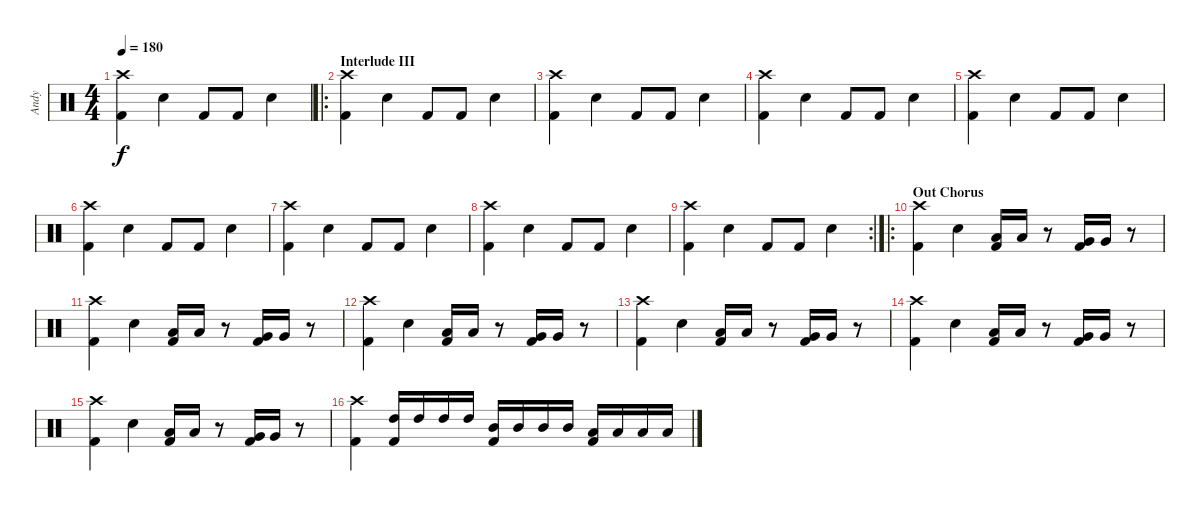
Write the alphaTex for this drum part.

\track ("Andy" "Andy") {instrument percussion}
\staff {score}
\articulation defaults
\ts (4 4)
\tempo 180
\clef neutral
\ks c
("Crash high (hit)" "Kick (hit) 2").4{dy f} "Snare (hit) 2".4 "Kick (hit) 2".8 "Kick (hit) 2".8 "Snare (hit) 2".4 |
\ro
\section ("" "Interlude III")
("Crash high (hit)" "Kick (hit) 2").4 "Snare (hit) 2".4 "Kick (hit) 2".8 "Kick (hit) 2".8 "Snare (hit) 2".4 |
("Crash high (hit)" "Kick (hit) 2").4 "Snare (hit) 2".4 "Kick (hit) 2".8 "Kick (hit) 2".8 "Snare (hit) 2".4 |
("Crash high (hit)" "Kick (hit) 2").4 "Snare (hit) 2".4 "Kick (hit) 2".8 "Kick (hit) 2".8 "Snare (hit) 2".4 |
("Crash high (hit)" "Kick (hit) 2").4 "Snare (hit) 2".4 "Kick (hit) 2".8 "Kick (hit) 2".8 "Snare (hit) 2".4 |
("Crash high (hit)" "Kick (hit) 2").4 "Snare (hit) 2".4 "Kick (hit) 2".8 "Kick (hit) 2".8 "Snare (hit) 2".4 |
("Crash high (hit)" "Kick (hit) 2").4 "Snare (hit) 2".4 "Kick (hit) 2".8 "Kick (hit) 2".8 "Snare (hit) 2".4 |
("Crash high (hit)" "Kick (hit) 2").4 "Snare (hit) 2".4 "Kick (hit) 2".8 "Kick (hit) 2".8 "Snare (hit) 2".4 |
\rc 2
("Crash high (hit)" "Kick (hit) 2").4 "Snare (hit) 2".4 "Kick (hit) 2".8 "Kick (hit) 2".8 "Snare (hit) 2".4 |
\ro
\section ("" "Out Chorus")
("Crash high (hit)" "Kick (hit) 2").4 "Snare (hit) 2".4 ("Low Tom (hit)" "Kick (hit) 2").16 "Low Tom (hit)".16 r.8 ("Very Low Tom (hit)" "Kick (hit) 2").16 "Very Low Tom (hit)".16 r.8 |
("Crash high (hit)" "Kick (hit) 2").4 "Snare (hit) 2".4 ("Low Tom (hit)" "Kick (hit) 2").16 "Low Tom (hit)".16 r.8 ("Very Low Tom (hit)" "Kick (hit) 2").16 "Very Low Tom (hit)".16 r.8 |
("Crash high (hit)" "Kick (hit) 2").4 "Snare (hit) 2".4 ("Low Tom (hit)" "Kick (hit) 2").16 "Low Tom (hit)".16 r.8 ("Very Low Tom (hit)" "Kick (hit) 2").16 "Very Low Tom (hit)".16 r.8 |
("Crash high (hit)" "Kick (hit) 2").4 "Snare (hit) 2".4 ("Low Tom (hit)" "Kick (hit) 2").16 "Low Tom (hit)".16 r.8 ("Very Low Tom (hit)" "Kick (hit) 2").16 "Very Low Tom (hit)".16 r.8 |
("Crash high (hit)" "Kick (hit) 2").4 "Snare (hit) 2".4 ("Low Tom (hit)" "Kick (hit) 2").16 "Low Tom (hit)".16 r.8 ("Very Low Tom (hit)" "Kick (hit) 2").16 "Very Low Tom (hit)".16 r.8 |
("Crash high (hit)" "Kick (hit) 2").4 "Snare (hit) 2".4 ("Low Tom (hit)" "Kick (hit) 2").16 "Low Tom (hit)".16 r.8 ("Very Low Tom (hit)" "Kick (hit) 2").16 "Very Low Tom (hit)".16 r.8 |
("Crash high (hit)" "Kick (hit) 2").4 ("High Tom (hit)" "Kick (hit) 2").16 "High Tom (hit)".16 "High Tom (hit)".16 "High Tom (hit)".16 ("Mid Tom (hit)" "Kick (hit) 2").16 "Mid Tom (hit)".16 "Mid Tom (hit)".16 "Mid Tom (hit)".16 ("Low Tom (hit)" "Kick (hit) 2").16 "Low Tom (hit)".16 "Low Tom (hit)".16 "Low Tom (hit)".16
